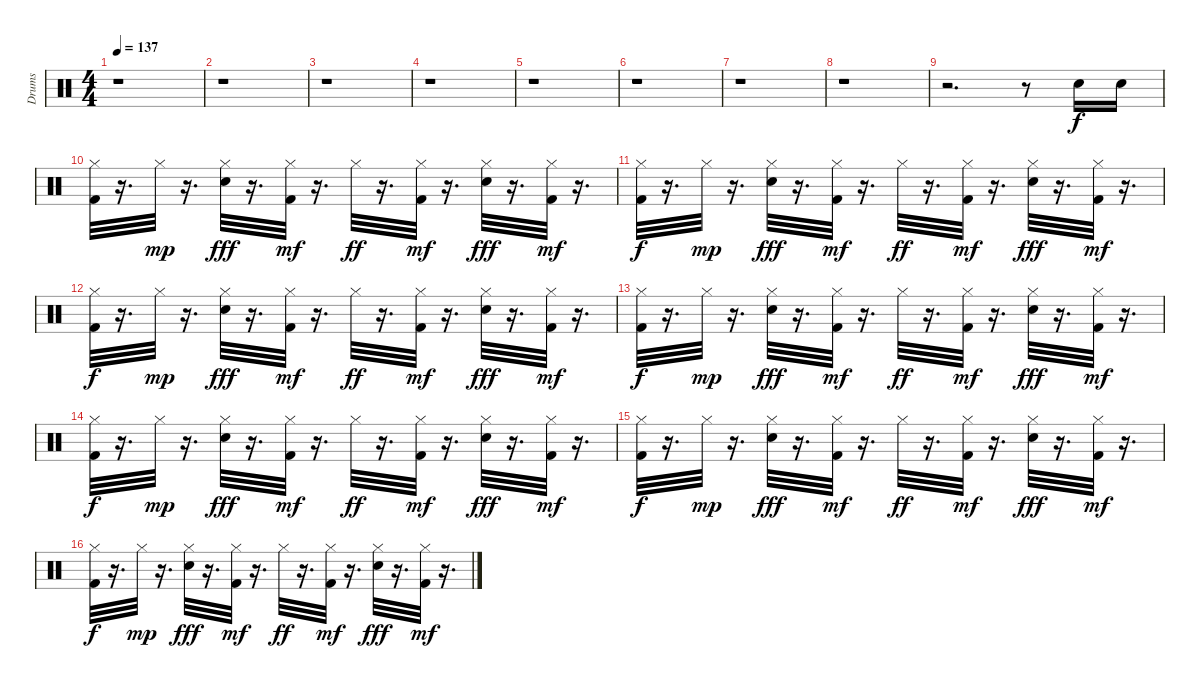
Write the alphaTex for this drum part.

\track ("Drums" "Drums") {instrument percussion}
\staff {score}
\articulation defaults
\ts (4 4)
\tempo 137
\clef neutral
\ks c
r.1{dy f} |
r.1 |
r.1 |
r.1 |
r.1 |
r.1 |
r.1 |
r.1 |
r.2{d} r.8 "Snare (hit) 2".16 "Electric Snare (hit)".16 |
("Hi-Hat (closed)" "Kick (hit) 2").32 r.16{d} "Hi-Hat (closed)".32{dy mp} r.16{d} ("Hi-Hat (closed)" "Snare (hit) 2").32{dy fff} r.16{d} ("Hi-Hat (closed)" "Kick (hit) 2").32{dy mf} r.16{d} "Hi-Hat (closed)".32{dy ff} r.16{d} ("Hi-Hat (closed)" "Kick (hit) 2").32{dy mf} r.16{d} ("Hi-Hat (closed)" "Snare (hit) 2").32{dy fff} r.16{d} ("Hi-Hat (closed)" "Kick (hit) 2").32{dy mf} r.16{d} |
("Hi-Hat (closed)" "Kick (hit) 2").32{dy f} r.16{d} "Hi-Hat (closed)".32{dy mp} r.16{d} ("Hi-Hat (closed)" "Snare (hit) 2").32{dy fff} r.16{d} ("Hi-Hat (closed)" "Kick (hit) 2").32{dy mf} r.16{d} "Hi-Hat (closed)".32{dy ff} r.16{d} ("Hi-Hat (closed)" "Kick (hit) 2").32{dy mf} r.16{d} ("Hi-Hat (closed)" "Snare (hit) 2").32{dy fff} r.16{d} ("Hi-Hat (closed)" "Kick (hit) 2").32{dy mf} r.16{d} |
("Hi-Hat (closed)" "Kick (hit) 2").32{dy f} r.16{d} "Hi-Hat (closed)".32{dy mp} r.16{d} ("Hi-Hat (closed)" "Snare (hit) 2").32{dy fff} r.16{d} ("Hi-Hat (closed)" "Kick (hit) 2").32{dy mf} r.16{d} "Hi-Hat (closed)".32{dy ff} r.16{d} ("Hi-Hat (closed)" "Kick (hit) 2").32{dy mf} r.16{d} ("Hi-Hat (closed)" "Snare (hit) 2").32{dy fff} r.16{d} ("Hi-Hat (closed)" "Kick (hit) 2").32{dy mf} r.16{d} |
("Hi-Hat (closed)" "Kick (hit) 2").32{dy f} r.16{d} "Hi-Hat (closed)".32{dy mp} r.16{d} ("Hi-Hat (closed)" "Snare (hit) 2").32{dy fff} r.16{d} ("Hi-Hat (closed)" "Kick (hit) 2").32{dy mf} r.16{d} "Hi-Hat (closed)".32{dy ff} r.16{d} ("Hi-Hat (closed)" "Kick (hit) 2").32{dy mf} r.16{d} ("Hi-Hat (closed)" "Snare (hit) 2").32{dy fff} r.16{d} ("Hi-Hat (closed)" "Kick (hit) 2").32{dy mf} r.16{d} |
("Hi-Hat (closed)" "Kick (hit) 2").32{dy f} r.16{d} "Hi-Hat (closed)".32{dy mp} r.16{d} ("Hi-Hat (closed)" "Snare (hit) 2").32{dy fff} r.16{d} ("Hi-Hat (closed)" "Kick (hit) 2").32{dy mf} r.16{d} "Hi-Hat (closed)".32{dy ff} r.16{d} ("Hi-Hat (closed)" "Kick (hit) 2").32{dy mf} r.16{d} ("Hi-Hat (closed)" "Snare (hit) 2").32{dy fff} r.16{d} ("Hi-Hat (closed)" "Kick (hit) 2").32{dy mf} r.16{d} |
("Hi-Hat (closed)" "Kick (hit) 2").32{dy f} r.16{d} "Hi-Hat (closed)".32{dy mp} r.16{d} ("Hi-Hat (closed)" "Snare (hit) 2").32{dy fff} r.16{d} ("Hi-Hat (closed)" "Kick (hit) 2").32{dy mf} r.16{d} "Hi-Hat (closed)".32{dy ff} r.16{d} ("Hi-Hat (closed)" "Kick (hit) 2").32{dy mf} r.16{d} ("Hi-Hat (closed)" "Snare (hit) 2").32{dy fff} r.16{d} ("Hi-Hat (closed)" "Kick (hit) 2").32{dy mf} r.16{d} |
("Hi-Hat (closed)" "Kick (hit) 2").32{dy f} r.16{d} "Hi-Hat (closed)".32{dy mp} r.16{d} ("Hi-Hat (closed)" "Snare (hit) 2").32{dy fff} r.16{d} ("Hi-Hat (closed)" "Kick (hit) 2").32{dy mf} r.16{d} "Hi-Hat (closed)".32{dy ff} r.16{d} ("Hi-Hat (closed)" "Kick (hit) 2").32{dy mf} r.16{d} ("Hi-Hat (closed)" "Snare (hit) 2").32{dy fff} r.16{d} ("Hi-Hat (closed)" "Kick (hit) 2").32{dy mf} r.16{d}
